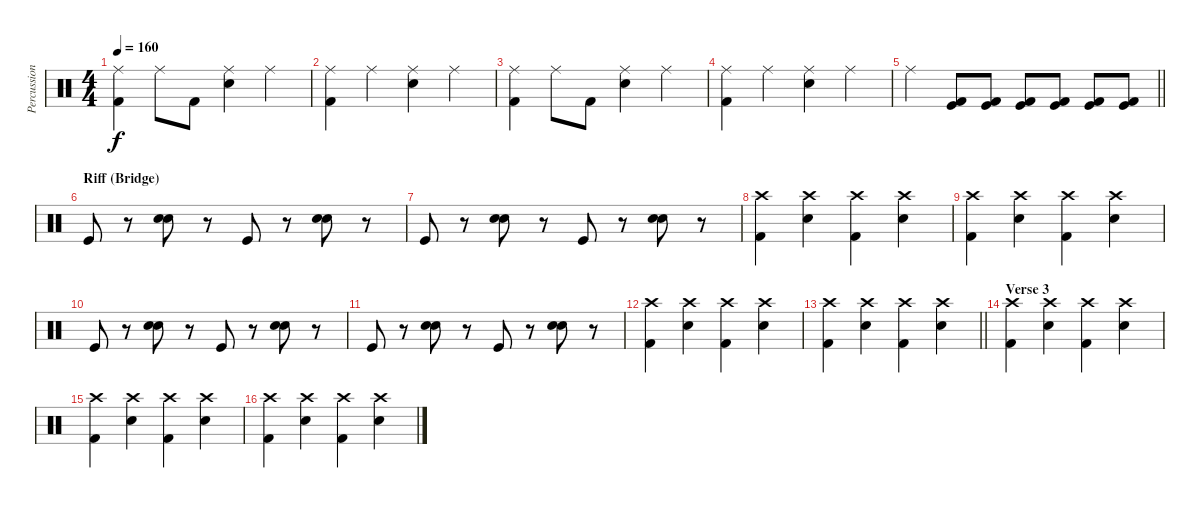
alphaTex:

\track ("Percussion" "Percussion") {solo instrument percussion}
\staff {score}
\articulation defaults
\ts (4 4)
\tempo 160
\clef neutral
\ks c
("Ride (middle)" "Kick (hit) 2").4{dy f} "Ride (middle)".8 "Kick (hit) 2".8 ("Ride (middle)" "Snare (hit) 2").4 "Ride (middle)".4 |
("Ride (middle)" "Kick (hit) 2").4 "Ride (middle)".4 ("Ride (middle)" "Snare (hit) 2").4 "Ride (middle)".4 |
("Ride (middle)" "Kick (hit) 2").4 "Ride (middle)".8 "Kick (hit) 2".8 ("Ride (middle)" "Snare (hit) 2").4 "Ride (middle)".4 |
("Ride (middle)" "Kick (hit) 2").4 "Ride (middle)".4 ("Ride (middle)" "Snare (hit) 2").4 "Ride (middle)".4 |
\barLineRight lightlight "Ride (middle)".4
("Kick (hit) 2" "Kick (hit)").8 ("Kick (hit) 2" "Kick (hit)").8 ("Kick (hit) 2" "Kick (hit)").8 ("Kick (hit) 2" "Kick (hit)").8 ("Kick (hit) 2" "Kick (hit)").8 ("Kick (hit) 2" "Kick (hit)").8 |
\section ("" "Riff (Bridge)")
"Kick (hit)".8 r.8 ("Hand Clap (hit)" "Snare (hit) 2").8 r.8 "Kick (hit)".8 r.8 ("Hand Clap (hit)" "Snare (hit) 2").8 r.8 |
"Kick (hit)".8 r.8 ("Hand Clap (hit)" "Snare (hit) 2").8 r.8 "Kick (hit)".8 r.8 ("Hand Clap (hit)" "Snare (hit) 2").8 r.8 |
("Crash high (hit)" "Kick (hit) 2").4 ("Crash high (hit)" "Snare (hit) 2").4 ("Crash high (hit)" "Kick (hit) 2").4 ("Crash high (hit)" "Snare (hit) 2").4 |
("Crash high (hit)" "Kick (hit) 2").4 ("Crash high (hit)" "Snare (hit) 2").4 ("Crash high (hit)" "Kick (hit) 2").4 ("Crash high (hit)" "Snare (hit) 2").4 |
"Kick (hit)".8 r.8 ("Hand Clap (hit)" "Snare (hit) 2").8 r.8 "Kick (hit)".8 r.8 ("Hand Clap (hit)" "Snare (hit) 2").8 r.8 |
"Kick (hit)".8 r.8 ("Hand Clap (hit)" "Snare (hit) 2").8 r.8 "Kick (hit)".8 r.8 ("Hand Clap (hit)" "Snare (hit) 2").8 r.8 |
("Crash high (hit)" "Kick (hit) 2").4 ("Crash high (hit)" "Snare (hit) 2").4 ("Crash high (hit)" "Kick (hit) 2").4 ("Crash high (hit)" "Snare (hit) 2").4 |
\barLineRight lightlight
("Crash high (hit)" "Kick (hit) 2").4 ("Crash high (hit)" "Snare (hit) 2").4 ("Crash high (hit)" "Kick (hit) 2").4 ("Crash high (hit)" "Snare (hit) 2").4 |
\section ("" "Verse 3")
("Crash high (hit)" "Kick (hit) 2").4 ("Crash high (hit)" "Snare (hit) 2").4 ("Crash high (hit)" "Kick (hit) 2").4 ("Crash high (hit)" "Snare (hit) 2").4 |
("Crash high (hit)" "Kick (hit) 2").4 ("Crash high (hit)" "Snare (hit) 2").4 ("Crash high (hit)" "Kick (hit) 2").4 ("Crash high (hit)" "Snare (hit) 2").4 |
("Crash high (hit)" "Kick (hit) 2").4 ("Crash high (hit)" "Snare (hit) 2").4 ("Crash high (hit)" "Kick (hit) 2").4 ("Crash high (hit)" "Snare (hit) 2").4
